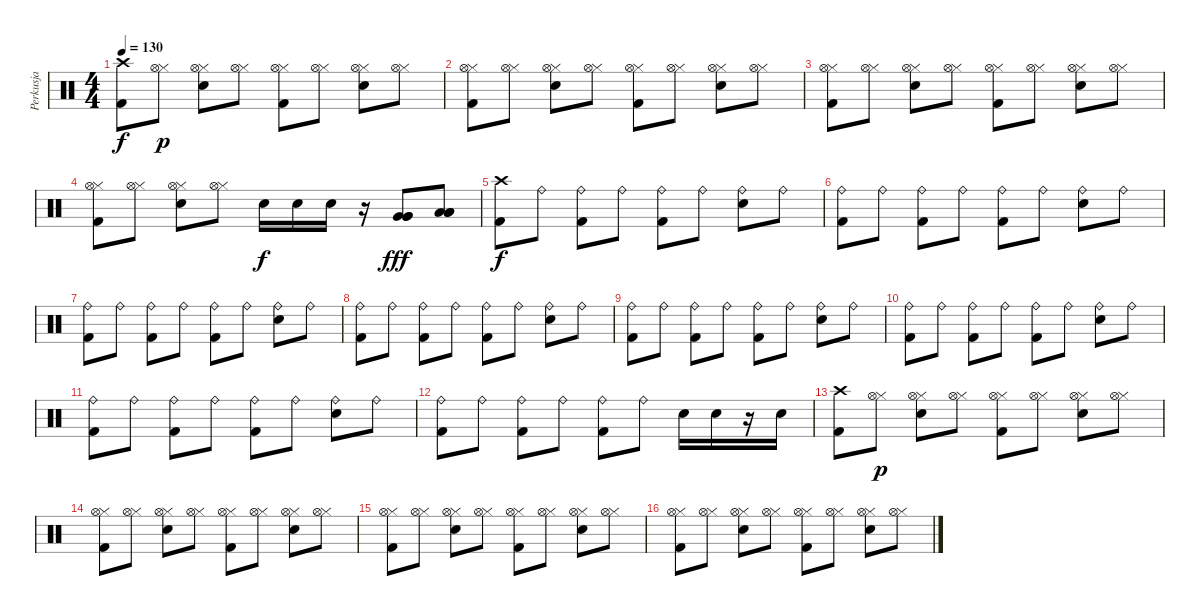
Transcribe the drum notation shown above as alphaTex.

\track ("Perkusja" "Perkusja") {instrument percussion}
\staff {score}
\articulation defaults
\ts (4 4)
\tempo 130
\clef neutral
\ks c
("Kick (hit) 2" "Crash high (hit)").8{dy f} ("Hi-Hat (closed)" "Hi-Hat (open)").8{dy p} ("Electric Snare (hit)" "Hi-Hat (closed)" "Hi-Hat (open)").8 ("Hi-Hat (closed)" "Hi-Hat (open)").8 ("Kick (hit) 2" "Hi-Hat (closed)" "Hi-Hat (open)").8 ("Hi-Hat (closed)" "Hi-Hat (open)").8 ("Electric Snare (hit)" "Hi-Hat (closed)" "Hi-Hat (open)").8 ("Hi-Hat (closed)" "Hi-Hat (open)").8 |
("Kick (hit) 2" "Hi-Hat (closed)" "Hi-Hat (open)").8 ("Hi-Hat (closed)" "Hi-Hat (open)").8 ("Electric Snare (hit)" "Hi-Hat (closed)" "Hi-Hat (open)").8 ("Hi-Hat (closed)" "Hi-Hat (open)").8 ("Kick (hit) 2" "Hi-Hat (closed)" "Hi-Hat (open)").8 ("Hi-Hat (closed)" "Hi-Hat (open)").8 ("Electric Snare (hit)" "Hi-Hat (closed)" "Hi-Hat (open)").8 ("Hi-Hat (closed)" "Hi-Hat (open)").8 |
("Kick (hit) 2" "Hi-Hat (closed)" "Hi-Hat (open)").8 ("Hi-Hat (closed)" "Hi-Hat (open)").8 ("Electric Snare (hit)" "Hi-Hat (closed)" "Hi-Hat (open)").8 ("Hi-Hat (closed)" "Hi-Hat (open)").8 ("Kick (hit) 2" "Hi-Hat (closed)" "Hi-Hat (open)").8 ("Hi-Hat (closed)" "Hi-Hat (open)").8 ("Electric Snare (hit)" "Hi-Hat (closed)" "Hi-Hat (open)").8 ("Hi-Hat (closed)" "Hi-Hat (open)").8 |
("Kick (hit) 2" "Hi-Hat (closed)" "Hi-Hat (open)").8 ("Hi-Hat (closed)" "Hi-Hat (open)").8 ("Electric Snare (hit)" "Hi-Hat (closed)" "Hi-Hat (open)").8 ("Hi-Hat (closed)" "Hi-Hat (open)").8 "Electric Snare (hit)".16{dy f} "Electric Snare (hit)".16 "Electric Snare (hit)".16 r.16 ("Very Low Tom (hit)" "Very Low Tom (hit)" "Very Low Tom (hit)").8{dy fff} ("Low Floor Tom (hit)" "Low Floor Tom (hit)" "Low Floor Tom (hit)").8 |
("Kick (hit) 2" "Crash high (hit)").8{dy f} "Ride (bell)".8 ("Kick (hit) 2" "Ride (bell)").8 "Ride (bell)".8 ("Kick (hit) 2" "Ride (bell)").8 "Ride (bell)".8 ("Electric Snare (hit)" "Ride (bell)").8 "Ride (bell)".8 |
("Kick (hit) 2" "Ride (bell)").8 "Ride (bell)".8 ("Kick (hit) 2" "Ride (bell)").8 "Ride (bell)".8 ("Kick (hit) 2" "Ride (bell)").8 "Ride (bell)".8 ("Electric Snare (hit)" "Ride (bell)").8 "Ride (bell)".8 |
("Kick (hit) 2" "Ride (bell)").8 "Ride (bell)".8 ("Kick (hit) 2" "Ride (bell)").8 "Ride (bell)".8 ("Kick (hit) 2" "Ride (bell)").8 "Ride (bell)".8 ("Electric Snare (hit)" "Ride (bell)").8 "Ride (bell)".8 |
("Kick (hit) 2" "Ride (bell)").8 "Ride (bell)".8 ("Kick (hit) 2" "Ride (bell)").8 "Ride (bell)".8 ("Kick (hit) 2" "Ride (bell)").8 "Ride (bell)".8 ("Electric Snare (hit)" "Ride (bell)").8 "Ride (bell)".8 |
("Kick (hit) 2" "Ride (bell)").8 "Ride (bell)".8 ("Kick (hit) 2" "Ride (bell)").8 "Ride (bell)".8 ("Kick (hit) 2" "Ride (bell)").8 "Ride (bell)".8 ("Electric Snare (hit)" "Ride (bell)").8 "Ride (bell)".8 |
("Kick (hit) 2" "Ride (bell)").8 "Ride (bell)".8 ("Kick (hit) 2" "Ride (bell)").8 "Ride (bell)".8 ("Kick (hit) 2" "Ride (bell)").8 "Ride (bell)".8 ("Electric Snare (hit)" "Ride (bell)").8 "Ride (bell)".8 |
("Kick (hit) 2" "Ride (bell)").8 "Ride (bell)".8 ("Kick (hit) 2" "Ride (bell)").8 "Ride (bell)".8 ("Kick (hit) 2" "Ride (bell)").8 "Ride (bell)".8 ("Electric Snare (hit)" "Ride (bell)").8 "Ride (bell)".8 |
("Kick (hit) 2" "Ride (bell)").8 "Ride (bell)".8 ("Kick (hit) 2" "Ride (bell)").8 "Ride (bell)".8 ("Kick (hit) 2" "Ride (bell)").8 "Ride (bell)".8 "Electric Snare (hit)".16 "Electric Snare (hit)".16 r.16 "Electric Snare (hit)".16 |
("Kick (hit) 2" "Crash high (hit)").8 ("Hi-Hat (closed)" "Hi-Hat (open)").8{dy p} ("Electric Snare (hit)" "Hi-Hat (closed)" "Hi-Hat (open)").8 ("Hi-Hat (closed)" "Hi-Hat (open)").8 ("Kick (hit) 2" "Hi-Hat (closed)" "Hi-Hat (open)").8 ("Hi-Hat (closed)" "Hi-Hat (open)").8 ("Electric Snare (hit)" "Hi-Hat (closed)" "Hi-Hat (open)").8 ("Hi-Hat (closed)" "Hi-Hat (open)").8 |
("Kick (hit) 2" "Hi-Hat (closed)" "Hi-Hat (open)").8 ("Hi-Hat (closed)" "Hi-Hat (open)").8 ("Electric Snare (hit)" "Hi-Hat (closed)" "Hi-Hat (open)").8 ("Hi-Hat (closed)" "Hi-Hat (open)").8 ("Kick (hit) 2" "Hi-Hat (closed)" "Hi-Hat (open)").8 ("Hi-Hat (closed)" "Hi-Hat (open)").8 ("Electric Snare (hit)" "Hi-Hat (closed)" "Hi-Hat (open)").8 ("Hi-Hat (closed)" "Hi-Hat (open)").8 |
("Kick (hit) 2" "Hi-Hat (closed)" "Hi-Hat (open)").8 ("Hi-Hat (closed)" "Hi-Hat (open)").8 ("Electric Snare (hit)" "Hi-Hat (closed)" "Hi-Hat (open)").8 ("Hi-Hat (closed)" "Hi-Hat (open)").8 ("Kick (hit) 2" "Hi-Hat (closed)" "Hi-Hat (open)").8 ("Hi-Hat (closed)" "Hi-Hat (open)").8 ("Electric Snare (hit)" "Hi-Hat (closed)" "Hi-Hat (open)").8 ("Hi-Hat (closed)" "Hi-Hat (open)").8 |
("Kick (hit) 2" "Hi-Hat (closed)" "Hi-Hat (open)").8 ("Hi-Hat (closed)" "Hi-Hat (open)").8 ("Electric Snare (hit)" "Hi-Hat (closed)" "Hi-Hat (open)").8 ("Hi-Hat (closed)" "Hi-Hat (open)").8 ("Kick (hit) 2" "Hi-Hat (closed)" "Hi-Hat (open)").8 ("Hi-Hat (closed)" "Hi-Hat (open)").8 ("Electric Snare (hit)" "Hi-Hat (closed)" "Hi-Hat (open)").8 ("Hi-Hat (closed)" "Hi-Hat (open)").8
